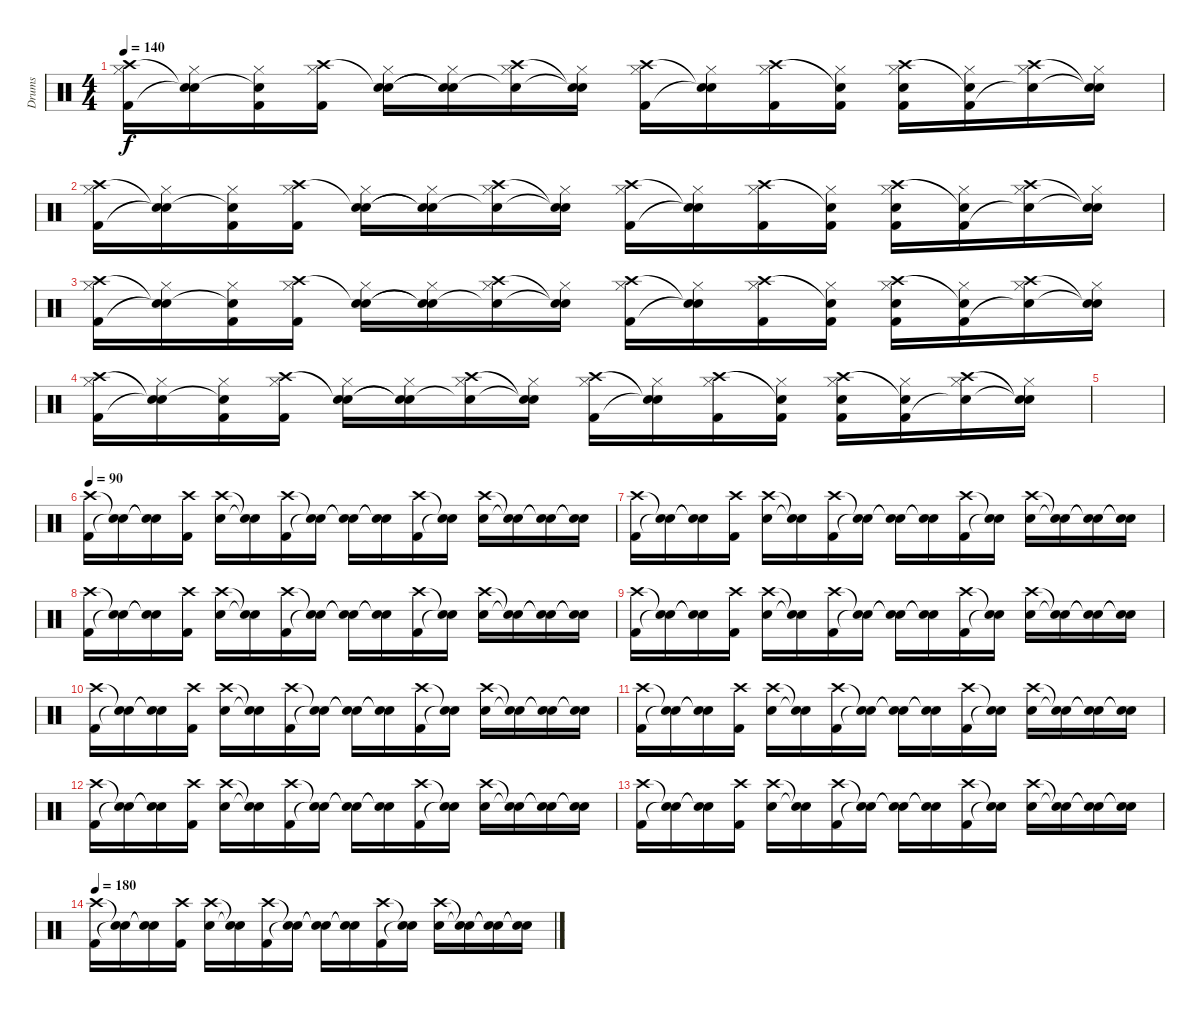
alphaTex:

\track ("Drums" "Drums") {instrument percussion}
\staff {score}
\articulation defaults
\ts (4 4)
\tempo 140
\clef neutral
\ks c
("Crash high (hit)" "Hi-Hat (closed)" "Kick (hit) 2").16{dy f} ("Snare (hit)"{t} "Hi-Hat (closed)" "Snare (hit)"{t}).16 ("Snare (hit)"{t} "Hi-Hat (closed)" "Kick (hit) 2").16 ("Crash high (hit)" "Hi-Hat (closed)" "Kick (hit) 2").16 ("Snare (hit)"{t} "Hi-Hat (closed)" "Electric Snare (hit)").16 ("Snare (hit)"{t} "Hi-Hat (closed)" "Snare (hit)"{t}).16 ("Crash high (hit)" "Hi-Hat (closed)" "Snare (hit)"{t}).16 ("Snare (hit)"{t} "Hi-Hat (closed)" "Snare (hit)"{t}).16 ("Crash high (hit)" "Hi-Hat (closed)" "Kick (hit) 2").16 ("Snare (hit)"{t} "Hi-Hat (closed)" "Snare (hit)"{t}).16 ("Crash high (hit)" "Hi-Hat (closed)" "Kick (hit) 2").16 ("Snare (hit)"{t} "Hi-Hat (closed)" "Kick (hit) 2").16 ("Crash high (hit)" "Hi-Hat (closed)" "Snare (hit) 2" "Kick (hit) 2").16 ("Snare (hit)"{t} "Hi-Hat (closed)" "Kick (hit) 2").16 ("Crash high (hit)" "Hi-Hat (closed)" "Snare (hit)"{t}).16 ("Snare (hit)"{t} "Hi-Hat (closed)" "Snare (hit)"{t}).16 |
("Crash high (hit)" "Hi-Hat (closed)" "Kick (hit) 2").16 ("Snare (hit)"{t} "Hi-Hat (closed)" "Snare (hit)"{t}).16 ("Snare (hit)"{t} "Hi-Hat (closed)" "Kick (hit) 2").16 ("Crash high (hit)" "Hi-Hat (closed)" "Kick (hit) 2").16 ("Snare (hit)"{t} "Hi-Hat (closed)" "Electric Snare (hit)").16 ("Snare (hit)"{t} "Hi-Hat (closed)" "Snare (hit)"{t}).16 ("Crash high (hit)" "Hi-Hat (closed)" "Snare (hit)"{t}).16 ("Snare (hit)"{t} "Hi-Hat (closed)" "Snare (hit)"{t}).16 ("Crash high (hit)" "Hi-Hat (closed)" "Kick (hit) 2").16 ("Snare (hit)"{t} "Hi-Hat (closed)" "Snare (hit)"{t}).16 ("Crash high (hit)" "Hi-Hat (closed)" "Kick (hit) 2").16 ("Snare (hit)"{t} "Hi-Hat (closed)" "Kick (hit) 2").16 ("Crash high (hit)" "Hi-Hat (closed)" "Snare (hit) 2" "Kick (hit) 2").16 ("Snare (hit)"{t} "Hi-Hat (closed)" "Kick (hit) 2").16 ("Crash high (hit)" "Hi-Hat (closed)" "Snare (hit)"{t}).16 ("Snare (hit)"{t} "Hi-Hat (closed)" "Snare (hit)"{t}).16 |
("Crash high (hit)" "Hi-Hat (closed)" "Kick (hit) 2").16 ("Snare (hit)"{t} "Hi-Hat (closed)" "Snare (hit)"{t}).16 ("Snare (hit)"{t} "Hi-Hat (closed)" "Kick (hit) 2").16 ("Crash high (hit)" "Hi-Hat (closed)" "Kick (hit) 2").16 ("Snare (hit)"{t} "Hi-Hat (closed)" "Electric Snare (hit)").16 ("Snare (hit)"{t} "Hi-Hat (closed)" "Snare (hit)"{t}).16 ("Crash high (hit)" "Hi-Hat (closed)" "Snare (hit)"{t}).16 ("Snare (hit)"{t} "Hi-Hat (closed)" "Snare (hit)"{t}).16 ("Crash high (hit)" "Hi-Hat (closed)" "Kick (hit) 2").16 ("Snare (hit)"{t} "Hi-Hat (closed)" "Snare (hit)"{t}).16 ("Crash high (hit)" "Hi-Hat (closed)" "Kick (hit) 2").16 ("Snare (hit)"{t} "Hi-Hat (closed)" "Kick (hit) 2").16 ("Crash high (hit)" "Hi-Hat (closed)" "Snare (hit) 2" "Kick (hit) 2").16 ("Snare (hit)"{t} "Hi-Hat (closed)" "Kick (hit) 2").16 ("Crash high (hit)" "Hi-Hat (closed)" "Snare (hit)"{t}).16 ("Snare (hit)"{t} "Hi-Hat (closed)" "Snare (hit)"{t}).16 |
("Crash high (hit)" "Hi-Hat (closed)" "Kick (hit) 2").16 ("Snare (hit)"{t} "Hi-Hat (closed)" "Snare (hit)"{t}).16 ("Snare (hit)"{t} "Hi-Hat (closed)" "Kick (hit) 2").16 ("Crash high (hit)" "Hi-Hat (closed)" "Kick (hit) 2").16 ("Snare (hit)"{t} "Hi-Hat (closed)" "Electric Snare (hit)").16 ("Snare (hit)"{t} "Hi-Hat (closed)" "Snare (hit)"{t}).16 ("Crash high (hit)" "Hi-Hat (closed)" "Snare (hit)"{t}).16 ("Snare (hit)"{t} "Hi-Hat (closed)" "Snare (hit)"{t}).16 ("Crash high (hit)" "Hi-Hat (closed)" "Kick (hit) 2").16 ("Snare (hit)"{t} "Hi-Hat (closed)" "Snare (hit)"{t}).16 ("Crash high (hit)" "Hi-Hat (closed)" "Kick (hit) 2").16 ("Snare (hit)"{t} "Hi-Hat (closed)" "Kick (hit) 2").16 ("Crash high (hit)" "Hi-Hat (closed)" "Snare (hit) 2" "Kick (hit) 2").16 ("Snare (hit)"{t} "Hi-Hat (closed)" "Kick (hit) 2").16 ("Crash high (hit)" "Hi-Hat (closed)" "Snare (hit)"{t}).16 ("Snare (hit)"{t} "Hi-Hat (closed)" "Snare (hit)"{t}).16 |
|
\tempo 90
("Crash high (hit)" "Kick (hit) 2").16 ("Snare (hit)"{t} "Snare (hit)"{t}).16 ("Snare (hit)"{t} "Snare (hit)"{t}).16 ("Crash high (hit)" "Kick (hit) 2").16 ("Crash high (hit)" "Electric Snare (hit)").16 ("Snare (hit)"{t} "Snare (hit)"{t}).16 ("Crash high (hit)" "Kick (hit) 2").16 ("Snare (hit)"{t} "Snare (hit)"{t}).16 ("Snare (hit)"{t} "Snare (hit)"{t}).16 ("Snare (hit)"{t} "Snare (hit)"{t}).16 ("Crash high (hit)" "Kick (hit) 2").16 ("Snare (hit)"{t} "Snare (hit)"{t}).16 ("Crash high (hit)" "Electric Snare (hit)").16 ("Snare (hit)"{t} "Snare (hit)"{t}).16 ("Snare (hit)"{t} "Snare (hit)"{t}).16 ("Snare (hit)"{t} "Snare (hit)"{t}).16 |
("Crash high (hit)" "Kick (hit) 2").16 ("Snare (hit)"{t} "Snare (hit)"{t}).16 ("Snare (hit)"{t} "Snare (hit)"{t}).16 ("Crash high (hit)" "Kick (hit) 2").16 ("Crash high (hit)" "Electric Snare (hit)").16 ("Snare (hit)"{t} "Snare (hit)"{t}).16 ("Crash high (hit)" "Kick (hit) 2").16 ("Snare (hit)"{t} "Snare (hit)"{t}).16 ("Snare (hit)"{t} "Snare (hit)"{t}).16 ("Snare (hit)"{t} "Snare (hit)"{t}).16 ("Crash high (hit)" "Kick (hit) 2").16 ("Snare (hit)"{t} "Snare (hit)"{t}).16 ("Crash high (hit)" "Electric Snare (hit)").16 ("Snare (hit)"{t} "Snare (hit)"{t}).16 ("Snare (hit)"{t} "Snare (hit)"{t}).16 ("Snare (hit)"{t} "Snare (hit)"{t}).16 |
("Crash high (hit)" "Kick (hit) 2").16 ("Snare (hit)"{t} "Snare (hit)"{t}).16 ("Snare (hit)"{t} "Snare (hit)"{t}).16 ("Crash high (hit)" "Kick (hit) 2").16 ("Crash high (hit)" "Electric Snare (hit)").16 ("Snare (hit)"{t} "Snare (hit)"{t}).16 ("Crash high (hit)" "Kick (hit) 2").16 ("Snare (hit)"{t} "Snare (hit)"{t}).16 ("Snare (hit)"{t} "Snare (hit)"{t}).16 ("Snare (hit)"{t} "Snare (hit)"{t}).16 ("Crash high (hit)" "Kick (hit) 2").16 ("Snare (hit)"{t} "Snare (hit)"{t}).16 ("Crash high (hit)" "Electric Snare (hit)").16 ("Snare (hit)"{t} "Snare (hit)"{t}).16 ("Snare (hit)"{t} "Snare (hit)"{t}).16 ("Snare (hit)"{t} "Snare (hit)"{t}).16 |
("Crash high (hit)" "Kick (hit) 2").16 ("Snare (hit)"{t} "Snare (hit)"{t}).16 ("Snare (hit)"{t} "Snare (hit)"{t}).16 ("Crash high (hit)" "Kick (hit) 2").16 ("Crash high (hit)" "Electric Snare (hit)").16 ("Snare (hit)"{t} "Snare (hit)"{t}).16 ("Crash high (hit)" "Kick (hit) 2").16 ("Snare (hit)"{t} "Snare (hit)"{t}).16 ("Snare (hit)"{t} "Snare (hit)"{t}).16 ("Snare (hit)"{t} "Snare (hit)"{t}).16 ("Crash high (hit)" "Kick (hit) 2").16 ("Snare (hit)"{t} "Snare (hit)"{t}).16 ("Crash high (hit)" "Electric Snare (hit)").16 ("Snare (hit)"{t} "Snare (hit)"{t}).16 ("Snare (hit)"{t} "Snare (hit)"{t}).16 ("Snare (hit)"{t} "Snare (hit)"{t}).16 |
("Crash high (hit)" "Kick (hit) 2").16 ("Snare (hit)"{t} "Snare (hit)"{t}).16 ("Snare (hit)"{t} "Snare (hit)"{t}).16 ("Crash high (hit)" "Kick (hit) 2").16 ("Crash high (hit)" "Electric Snare (hit)").16 ("Snare (hit)"{t} "Snare (hit)"{t}).16 ("Crash high (hit)" "Kick (hit) 2").16 ("Snare (hit)"{t} "Snare (hit)"{t}).16 ("Snare (hit)"{t} "Snare (hit)"{t}).16 ("Snare (hit)"{t} "Snare (hit)"{t}).16 ("Crash high (hit)" "Kick (hit) 2").16 ("Snare (hit)"{t} "Snare (hit)"{t}).16 ("Crash high (hit)" "Electric Snare (hit)").16 ("Snare (hit)"{t} "Snare (hit)"{t}).16 ("Snare (hit)"{t} "Snare (hit)"{t}).16 ("Snare (hit)"{t} "Snare (hit)"{t}).16 |
("Crash high (hit)" "Kick (hit) 2").16 ("Snare (hit)"{t} "Snare (hit)"{t}).16 ("Snare (hit)"{t} "Snare (hit)"{t}).16 ("Crash high (hit)" "Kick (hit) 2").16 ("Crash high (hit)" "Electric Snare (hit)").16 ("Snare (hit)"{t} "Snare (hit)"{t}).16 ("Crash high (hit)" "Kick (hit) 2").16 ("Snare (hit)"{t} "Snare (hit)"{t}).16 ("Snare (hit)"{t} "Snare (hit)"{t}).16 ("Snare (hit)"{t} "Snare (hit)"{t}).16 ("Crash high (hit)" "Kick (hit) 2").16 ("Snare (hit)"{t} "Snare (hit)"{t}).16 ("Crash high (hit)" "Electric Snare (hit)").16 ("Snare (hit)"{t} "Snare (hit)"{t}).16 ("Snare (hit)"{t} "Snare (hit)"{t}).16 ("Snare (hit)"{t} "Snare (hit)"{t}).16 |
("Crash high (hit)" "Kick (hit) 2").16 ("Snare (hit)"{t} "Snare (hit)"{t}).16 ("Snare (hit)"{t} "Snare (hit)"{t}).16 ("Crash high (hit)" "Kick (hit) 2").16 ("Crash high (hit)" "Electric Snare (hit)").16 ("Snare (hit)"{t} "Snare (hit)"{t}).16 ("Crash high (hit)" "Kick (hit) 2").16 ("Snare (hit)"{t} "Snare (hit)"{t}).16 ("Snare (hit)"{t} "Snare (hit)"{t}).16 ("Snare (hit)"{t} "Snare (hit)"{t}).16 ("Crash high (hit)" "Kick (hit) 2").16 ("Snare (hit)"{t} "Snare (hit)"{t}).16 ("Crash high (hit)" "Electric Snare (hit)").16 ("Snare (hit)"{t} "Snare (hit)"{t}).16 ("Snare (hit)"{t} "Snare (hit)"{t}).16 ("Snare (hit)"{t} "Snare (hit)"{t}).16 |
("Crash high (hit)" "Kick (hit) 2").16 ("Snare (hit)"{t} "Snare (hit)"{t}).16 ("Snare (hit)"{t} "Snare (hit)"{t}).16 ("Crash high (hit)" "Kick (hit) 2").16 ("Crash high (hit)" "Electric Snare (hit)").16 ("Snare (hit)"{t} "Snare (hit)"{t}).16 ("Crash high (hit)" "Kick (hit) 2").16 ("Snare (hit)"{t} "Snare (hit)"{t}).16 ("Snare (hit)"{t} "Snare (hit)"{t}).16 ("Snare (hit)"{t} "Snare (hit)"{t}).16 ("Crash high (hit)" "Kick (hit) 2").16 ("Snare (hit)"{t} "Snare (hit)"{t}).16 ("Crash high (hit)" "Electric Snare (hit)").16 ("Snare (hit)"{t} "Snare (hit)"{t}).16 ("Snare (hit)"{t} "Snare (hit)"{t}).16 ("Snare (hit)"{t} "Snare (hit)"{t}).16 |
\tempo 180
("Crash high (hit)" "Kick (hit) 2").16 ("Snare (hit)"{t} "Snare (hit)"{t}).16 ("Snare (hit)"{t} "Snare (hit)"{t}).16 ("Crash high (hit)" "Kick (hit) 2").16 ("Crash high (hit)" "Electric Snare (hit)").16 ("Snare (hit)"{t} "Snare (hit)"{t}).16 ("Crash high (hit)" "Kick (hit) 2").16 ("Snare (hit)"{t} "Snare (hit)"{t}).16 ("Snare (hit)"{t} "Snare (hit)"{t}).16 ("Snare (hit)"{t} "Snare (hit)"{t}).16 ("Crash high (hit)" "Kick (hit) 2").16 ("Snare (hit)"{t} "Snare (hit)"{t}).16 ("Crash high (hit)" "Electric Snare (hit)").16 ("Snare (hit)"{t} "Snare (hit)"{t}).16 ("Snare (hit)"{t} "Snare (hit)"{t}).16 ("Snare (hit)"{t} "Snare (hit)"{t}).16
